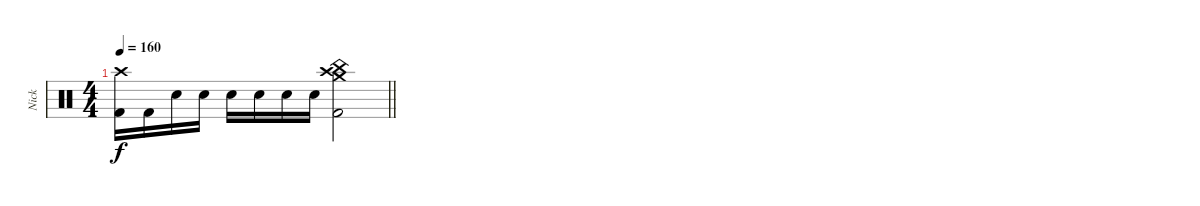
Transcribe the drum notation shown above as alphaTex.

\track ("Nick" "Nick") {instrument percussion}
\staff {score}
\articulation defaults
\ts (4 4)
\tempo 160
\clef neutral
\barLineRight lightlight
\ks c
("Kick (hit) 2" "Crash high (hit)").16{dy f} "Kick (hit) 2".16 "Electric Snare (hit)".16 "Electric Snare (hit)".16 "Electric Snare (hit)".16 "Electric Snare (hit)".16 "Electric Snare (hit)".16 "Electric Snare (hit)".16 ("Kick (hit) 2" "China (hit)" "Crash medium (hit)" "Crash high (hit)").2
